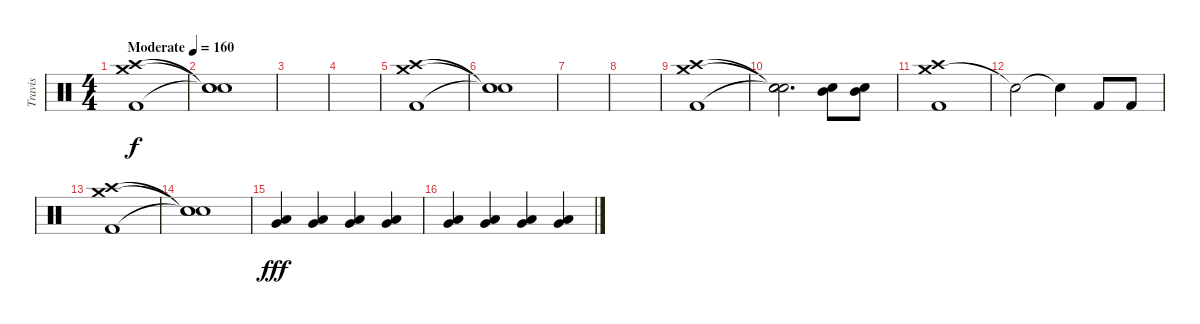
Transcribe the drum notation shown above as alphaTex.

\track ("Travis" "Travis") {instrument percussion}
\staff {score}
\articulation defaults
\ts (4 4)
\tempo (160 "Moderate")
\clef neutral
\ks c
("Crash high (hit)" "Crash medium (hit)" "Kick (hit) 2").1{dy f} |
("Snare (hit)"{t} "Snare (hit)"{t} "Snare (hit)"{t}).1 |
|
|
("Crash high (hit)" "Crash medium (hit)" "Kick (hit) 2").1 |
("Snare (hit)"{t} "Snare (hit)"{t} "Snare (hit)"{t}).1 |
|
|
("Crash high (hit)" "Crash medium (hit)" "Kick (hit) 2").1 |
("Snare (hit)"{t} "Snare (hit)"{t} "Snare (hit)"{t}).2{d} ("Mid Tom (hit)" "Electric Snare (hit)").8 ("Mid Tom (hit)" "Electric Snare (hit)").8 |
("Crash medium (hit)" "Crash high (hit)" "Kick (hit) 2").1 |
"Snare (hit)"{t}.2 "Snare (hit)"{t}.4 "Kick (hit) 2".8 "Kick (hit) 2".8 |
("Crash medium (hit)" "Crash high (hit)" "Kick (hit) 2").1 |
("Snare (hit)"{t} "Snare (hit)"{t} "Snare (hit)"{t}).1 |
("Very Low Tom (hit)" "Low Tom (hit)").4{dy fff} ("Very Low Tom (hit)" "Low Tom (hit)").4 ("Very Low Tom (hit)" "Low Tom (hit)").4 ("Very Low Tom (hit)" "Low Tom (hit)").4 |
("Low Tom (hit)" "Very Low Tom (hit)").4 ("Low Tom (hit)" "Very Low Tom (hit)").4 ("Low Tom (hit)" "Very Low Tom (hit)").4 ("Low Tom (hit)" "Very Low Tom (hit)").4
